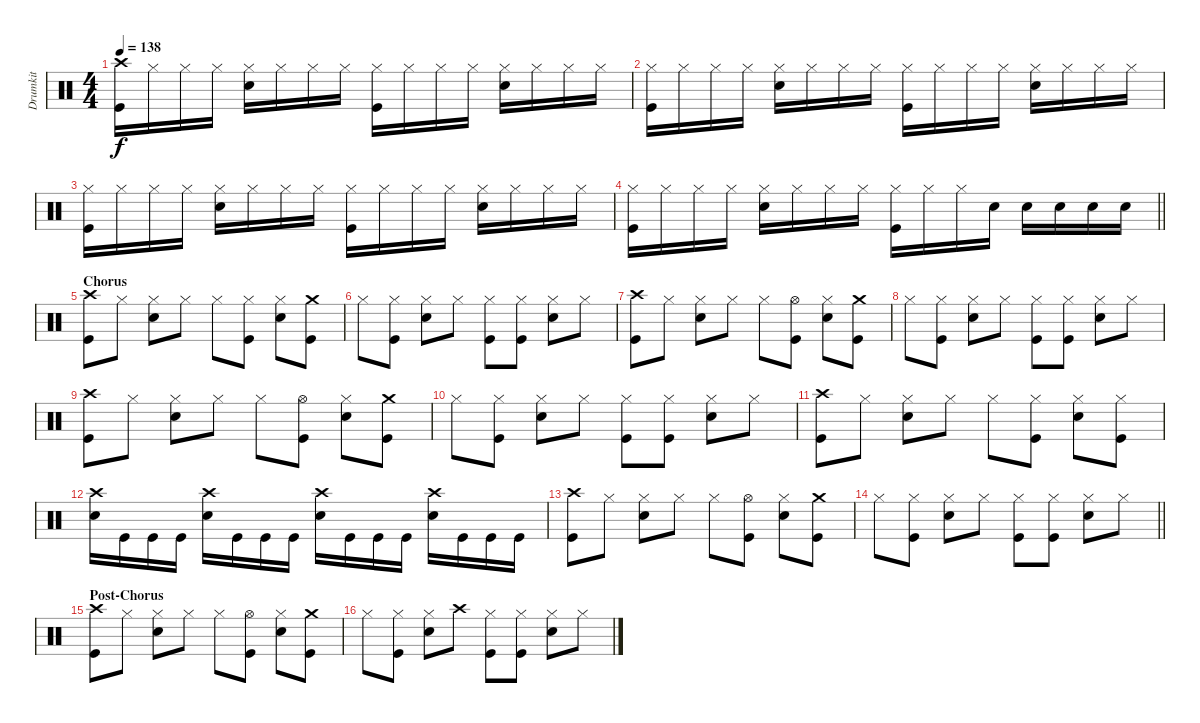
\track ("Drumkit" "Drumkit") {instrument percussion}
\staff {score}
\articulation defaults
\ts (4 4)
\tempo 138
\clef neutral
\ks c
("Kick (hit)" "Crash high (hit)").16{dy f} "Hi-Hat (closed)".16 "Hi-Hat (closed)".16 "Hi-Hat (closed)".16 ("Snare (hit) 2" "Hi-Hat (closed)").16 "Hi-Hat (closed)".16 "Hi-Hat (closed)".16 "Hi-Hat (closed)".16 ("Kick (hit)" "Hi-Hat (closed)").16 "Hi-Hat (closed)".16 "Hi-Hat (closed)".16 "Hi-Hat (closed)".16 ("Snare (hit) 2" "Hi-Hat (closed)").16 "Hi-Hat (closed)".16 "Hi-Hat (closed)".16 "Hi-Hat (closed)".16 |
("Kick (hit)" "Hi-Hat (closed)").16 "Hi-Hat (closed)".16 "Hi-Hat (closed)".16 "Hi-Hat (closed)".16 ("Snare (hit) 2" "Hi-Hat (closed)").16 "Hi-Hat (closed)".16 "Hi-Hat (closed)".16 "Hi-Hat (closed)".16 ("Kick (hit)" "Hi-Hat (closed)").16 "Hi-Hat (closed)".16 "Hi-Hat (closed)".16 "Hi-Hat (closed)".16 ("Snare (hit) 2" "Hi-Hat (closed)").16 "Hi-Hat (closed)".16 "Hi-Hat (closed)".16 "Hi-Hat (closed)".16 |
("Kick (hit)" "Hi-Hat (closed)").16 "Hi-Hat (closed)".16 "Hi-Hat (closed)".16 "Hi-Hat (closed)".16 ("Snare (hit) 2" "Hi-Hat (closed)").16 "Hi-Hat (closed)".16 "Hi-Hat (closed)".16 "Hi-Hat (closed)".16 ("Kick (hit)" "Hi-Hat (closed)").16 "Hi-Hat (closed)".16 "Hi-Hat (closed)".16 "Hi-Hat (closed)".16 ("Snare (hit) 2" "Hi-Hat (closed)").16 "Hi-Hat (closed)".16 "Hi-Hat (closed)".16 "Hi-Hat (closed)".16 |
\barLineRight lightlight
("Kick (hit)" "Hi-Hat (closed)").16 "Hi-Hat (closed)".16 "Hi-Hat (closed)".16 "Hi-Hat (closed)".16 ("Snare (hit) 2" "Hi-Hat (closed)").16 "Hi-Hat (closed)".16 "Hi-Hat (closed)".16 "Hi-Hat (closed)".16 ("Kick (hit)" "Hi-Hat (closed)").16 "Hi-Hat (closed)".16 "Hi-Hat (closed)".16 "Snare (hit) 2".16 "Snare (hit) 2".16 "Snare (hit) 2".16 "Snare (hit) 2".16 "Snare (hit) 2".16 |
\section ("" "Chorus")
("Kick (hit)" "Crash high (hit)").8 "Hi-Hat (closed)".8 ("Snare (hit) 2" "Hi-Hat (closed)").8 "Hi-Hat (closed)".8 "Hi-Hat (closed)".8 ("Kick (hit)" "Hi-Hat (closed)").8 ("Snare (hit) 2" "Hi-Hat (closed)").8 ("Kick (hit)" "Crash medium (hit)").8 |
"Hi-Hat (closed)".8 ("Hi-Hat (closed)" "Kick (hit)").8 ("Hi-Hat (closed)" "Snare (hit) 2").8 "Hi-Hat (closed)".8 ("Hi-Hat (closed)" "Kick (hit)").8 ("Hi-Hat (closed)" "Kick (hit)").8 ("Snare (hit) 2" "Hi-Hat (closed)").8 "Hi-Hat (closed)".8 |
("Kick (hit)" "Crash high (hit)").8 "Hi-Hat (closed)".8 ("Snare (hit) 2" "Hi-Hat (closed)").8 "Hi-Hat (closed)".8 "Hi-Hat (closed)".8 ("Kick (hit)" "Hi-Hat (open)").8 ("Snare (hit) 2" "Hi-Hat (closed)").8 ("Kick (hit)" "Crash medium (hit)").8 |
"Hi-Hat (closed)".8 ("Hi-Hat (closed)" "Kick (hit)").8 ("Hi-Hat (closed)" "Snare (hit) 2").8 "Hi-Hat (closed)".8 ("Hi-Hat (closed)" "Kick (hit)").8 ("Hi-Hat (closed)" "Kick (hit)").8 ("Snare (hit) 2" "Hi-Hat (closed)").8 "Hi-Hat (closed)".8 |
("Kick (hit)" "Crash high (hit)").8 "Hi-Hat (closed)".8 ("Snare (hit) 2" "Hi-Hat (closed)").8 "Hi-Hat (closed)".8 "Hi-Hat (closed)".8 ("Kick (hit)" "Hi-Hat (open)").8 ("Snare (hit) 2" "Hi-Hat (closed)").8 ("Kick (hit)" "Crash medium (hit)").8 |
"Hi-Hat (closed)".8 ("Hi-Hat (closed)" "Kick (hit)").8 ("Hi-Hat (closed)" "Snare (hit) 2").8 "Hi-Hat (closed)".8 ("Hi-Hat (closed)" "Kick (hit)").8 ("Hi-Hat (closed)" "Kick (hit)").8 ("Snare (hit) 2" "Hi-Hat (closed)").8 "Hi-Hat (closed)".8 |
("Kick (hit)" "Crash high (hit)").8 "Hi-Hat (closed)".8 ("Snare (hit) 2" "Hi-Hat (closed)").8 "Hi-Hat (closed)".8 "Hi-Hat (closed)".8 ("Kick (hit)" "Hi-Hat (closed)").8 ("Snare (hit) 2" "Hi-Hat (closed)").8 ("Kick (hit)" "Hi-Hat (closed)").8 |
("Snare (hit) 2" "Crash high (hit)").16 "Kick (hit)".16 "Kick (hit)".16 "Kick (hit)".16 ("Snare (hit) 2" "Crash high (hit)").16 "Kick (hit)".16 "Kick (hit)".16 "Kick (hit)".16 ("Snare (hit) 2" "Crash high (hit)").16 "Kick (hit)".16 "Kick (hit)".16 "Kick (hit)".16 ("Snare (hit) 2" "Crash high (hit)").16 "Kick (hit)".16 "Kick (hit)".16 "Kick (hit)".16 |
("Kick (hit)" "Crash high (hit)").8 "Hi-Hat (closed)".8 ("Snare (hit) 2" "Hi-Hat (closed)").8 "Hi-Hat (closed)".8 "Hi-Hat (closed)".8 ("Kick (hit)" "Hi-Hat (open)").8 ("Snare (hit) 2" "Hi-Hat (closed)").8 ("Kick (hit)" "Crash medium (hit)").8 |
\barLineRight lightlight "Hi-Hat (closed)".8
("Hi-Hat (closed)" "Kick (hit)").8 ("Hi-Hat (closed)" "Snare (hit) 2").8 "Hi-Hat (closed)".8 ("Hi-Hat (closed)" "Kick (hit)").8 ("Hi-Hat (closed)" "Kick (hit)").8 ("Snare (hit) 2" "Hi-Hat (closed)").8 "Hi-Hat (closed)".8 |
\section ("" "Post-Chorus")
("Kick (hit)" "Crash high (hit)").8 "Hi-Hat (closed)".8 ("Snare (hit) 2" "Hi-Hat (closed)").8 "Hi-Hat (closed)".8 "Hi-Hat (closed)".8 ("Kick (hit)" "Hi-Hat (open)").8 ("Snare (hit) 2" "Hi-Hat (closed)").8 ("Kick (hit)" "Crash medium (hit)").8 |
"Hi-Hat (closed)".8 ("Hi-Hat (closed)" "Kick (hit)").8 ("Hi-Hat (closed)" "Snare (hit) 2").8 "Crash high (hit)".8 ("Hi-Hat (closed)" "Kick (hit)").8 ("Hi-Hat (closed)" "Kick (hit)").8 ("Snare (hit) 2" "Hi-Hat (closed)").8 "Hi-Hat (closed)".8
